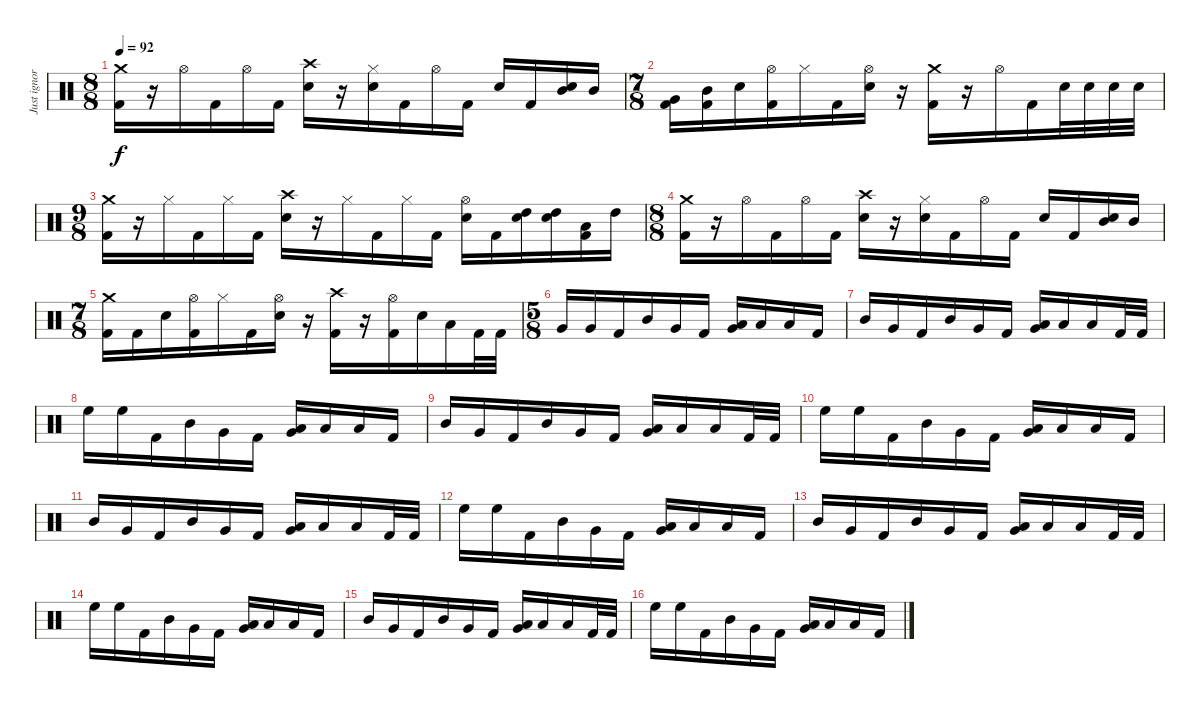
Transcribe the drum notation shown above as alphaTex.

\track ("Just ignore this track" "Just ignor") {instrument percussion}
\staff {score}
\articulation defaults
\ts (8 8)
\tempo 92
\clef neutral
\ks c
("Crash medium (hit)" "Kick (hit) 2").16{dy f} r.16 "Hi-Hat (open)".16 "Kick (hit) 2".16 "Hi-Hat (open)".16 "Kick (hit) 2".16 ("Crash high (hit)" "Electric Snare (hit)").16 r.16 ("Hi-Hat (closed)" "Electric Snare (hit)").16 "Kick (hit) 2".16 "Hi-Hat (open)".16 "Kick (hit) 2".16 "Electric Snare (hit)".16 "Kick (hit) 2".16 ("Mid Tom (hit)" "Electric Snare (hit)").16 "Mid Tom (hit)".16 |
\ts (7 8)
("Very Low Tom (hit)" "Kick (hit) 2").16 ("Mid Tom (hit)" "Kick (hit) 2").16 "Electric Snare (hit)".16 ("Hi-Hat (open)" "Kick (hit) 2").16 "Hi-Hat (closed)".16 "Kick (hit) 2".16 ("Hi-Hat (open)" "Electric Snare (hit)").16 r.16 ("Crash medium (hit)" "Kick (hit) 2").16 r.16 "Hi-Hat (open)".16 "Kick (hit) 2".16 "Electric Snare (hit)".32 "Electric Snare (hit)".32 "Electric Snare (hit)".32 "Electric Snare (hit)".32 |
\ts (9 8)
("Crash medium (hit)" "Kick (hit) 2").16 r.16 "Hi-Hat (closed)".16 "Kick (hit) 2".16 "Hi-Hat (closed)".16 "Kick (hit) 2".16 ("Crash high (hit)" "Electric Snare (hit)").16 r.16 "Hi-Hat (closed)".16 "Kick (hit) 2".16 "Hi-Hat (closed)".16 "Kick (hit) 2".16 ("Hi-Hat (open)" "Electric Snare (hit)").16 "Kick (hit) 2".16 ("High Tom (hit)" "Electric Snare (hit)").16 ("High Tom (hit)" "Electric Snare (hit)").16 ("Low Tom (hit)" "Kick (hit) 2").16 "High Tom (hit)".16 |
\ts (8 8)
("Crash medium (hit)" "Kick (hit) 2").16 r.16 "Hi-Hat (open)".16 "Kick (hit) 2".16 "Hi-Hat (open)".16 "Kick (hit) 2".16 ("Crash high (hit)" "Electric Snare (hit)").16 r.16 ("Hi-Hat (closed)" "Electric Snare (hit)").16 "Kick (hit) 2".16 "Hi-Hat (open)".16 "Kick (hit) 2".16 "Electric Snare (hit)".16 "Kick (hit) 2".16 ("Mid Tom (hit)" "Electric Snare (hit)").16 "Mid Tom (hit)".16 |
\ts (7 8)
("Crash medium (hit)" "Kick (hit) 2").16 "Kick (hit) 2".16 "Electric Snare (hit)".16 ("Hi-Hat (open)" "Kick (hit) 2").16 "Hi-Hat (closed)".16 "Kick (hit) 2".16 ("Hi-Hat (open)" "Electric Snare (hit)").16 r.16 ("Crash high (hit)" "Kick (hit) 2").16 r.16 ("Hi-Hat (open)" "Kick (hit) 2").16 "Electric Snare (hit)".16 "Low Floor Tom (hit)".16 "Kick (hit) 2".32 "Kick (hit) 2".32 |
\ts (5 8)
"Very Low Tom (hit)".16 "Very Low Tom (hit)".16 "Kick (hit) 2".16 "Mid Tom (hit)".16 "Very Low Tom (hit)".16 "Kick (hit) 2".16 ("Low Floor Tom (hit)" "Very Low Tom (hit)").16 "Low Floor Tom (hit)".16 "Low Floor Tom (hit)".16 "Kick (hit) 2".16 |
"Mid Tom (hit)".16 "Very Low Tom (hit)".16 "Kick (hit) 2".16 "Mid Tom (hit)".16 "Very Low Tom (hit)".16 "Kick (hit) 2".16 ("Low Floor Tom (hit)" "Very Low Tom (hit)").16 "Low Floor Tom (hit)".16 "Low Floor Tom (hit)".16 "Kick (hit) 2".32 "Kick (hit) 2".32 |
"High Floor Tom (hit)".16 "High Floor Tom (hit)".16 "Kick (hit) 2".16 "Mid Tom (hit)".16 "Very Low Tom (hit)".16 "Kick (hit) 2".16 ("Low Floor Tom (hit)" "Very Low Tom (hit)").16 "Low Floor Tom (hit)".16 "Low Floor Tom (hit)".16 "Kick (hit) 2".16 |
"Mid Tom (hit)".16 "Very Low Tom (hit)".16 "Kick (hit) 2".16 "Mid Tom (hit)".16 "Very Low Tom (hit)".16 "Kick (hit) 2".16 ("Low Floor Tom (hit)" "Very Low Tom (hit)").16 "Low Floor Tom (hit)".16 "Low Floor Tom (hit)".16 "Kick (hit) 2".32 "Kick (hit) 2".32 |
"High Floor Tom (hit)".16 "High Floor Tom (hit)".16 "Kick (hit) 2".16 "Mid Tom (hit)".16 "Very Low Tom (hit)".16 "Kick (hit) 2".16 ("Low Floor Tom (hit)" "Very Low Tom (hit)").16 "Low Floor Tom (hit)".16 "Low Floor Tom (hit)".16 "Kick (hit) 2".16 |
"Mid Tom (hit)".16 "Very Low Tom (hit)".16 "Kick (hit) 2".16 "Mid Tom (hit)".16 "Very Low Tom (hit)".16 "Kick (hit) 2".16 ("Low Floor Tom (hit)" "Very Low Tom (hit)").16 "Low Floor Tom (hit)".16 "Low Floor Tom (hit)".16 "Kick (hit) 2".32 "Kick (hit) 2".32 |
"High Floor Tom (hit)".16 "High Floor Tom (hit)".16 "Kick (hit) 2".16 "Mid Tom (hit)".16 "Very Low Tom (hit)".16 "Kick (hit) 2".16 ("Low Floor Tom (hit)" "Very Low Tom (hit)").16 "Low Floor Tom (hit)".16 "Low Floor Tom (hit)".16 "Kick (hit) 2".16 |
"Mid Tom (hit)".16 "Very Low Tom (hit)".16 "Kick (hit) 2".16 "Mid Tom (hit)".16 "Very Low Tom (hit)".16 "Kick (hit) 2".16 ("Low Floor Tom (hit)" "Very Low Tom (hit)").16 "Low Floor Tom (hit)".16 "Low Floor Tom (hit)".16 "Kick (hit) 2".32 "Kick (hit) 2".32 |
"High Floor Tom (hit)".16 "High Floor Tom (hit)".16 "Kick (hit) 2".16 "Mid Tom (hit)".16 "Very Low Tom (hit)".16 "Kick (hit) 2".16 ("Low Floor Tom (hit)" "Very Low Tom (hit)").16 "Low Floor Tom (hit)".16 "Low Floor Tom (hit)".16 "Kick (hit) 2".16 |
"Mid Tom (hit)".16 "Very Low Tom (hit)".16 "Kick (hit) 2".16 "Mid Tom (hit)".16 "Very Low Tom (hit)".16 "Kick (hit) 2".16 ("Low Floor Tom (hit)" "Very Low Tom (hit)").16 "Low Floor Tom (hit)".16 "Low Floor Tom (hit)".16 "Kick (hit) 2".32 "Kick (hit) 2".32 |
"High Floor Tom (hit)".16 "High Floor Tom (hit)".16 "Kick (hit) 2".16 "Mid Tom (hit)".16 "Very Low Tom (hit)".16 "Kick (hit) 2".16 ("Low Floor Tom (hit)" "Very Low Tom (hit)").16 "Low Floor Tom (hit)".16 "Low Floor Tom (hit)".16 "Kick (hit) 2".16
